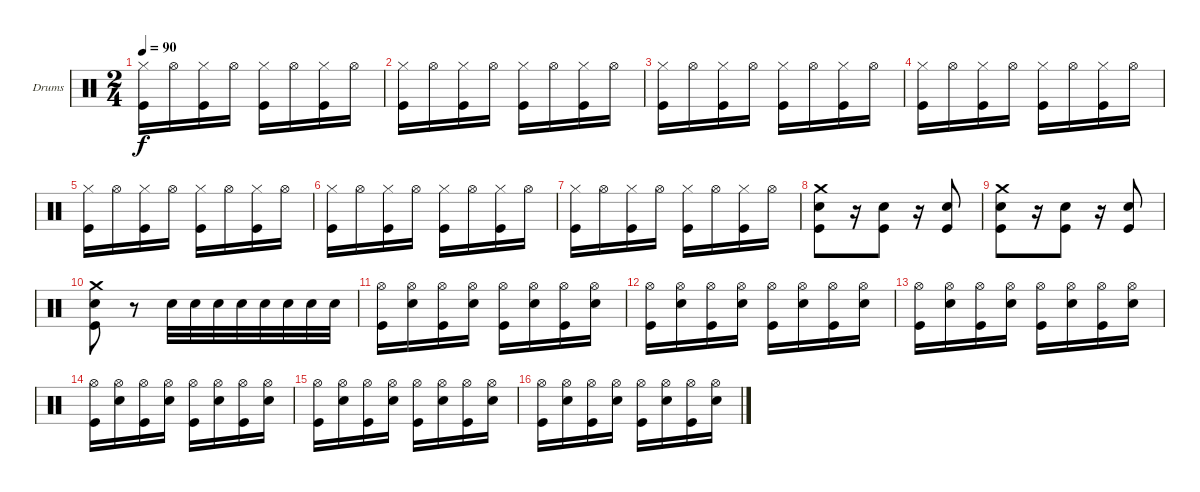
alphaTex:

\bracketExtendMode groupsimilarinstruments
\firstSystemTrackNameOrientation horizontal
\otherSystemsTrackNameOrientation horizontal
\track ("Барабаны" "Drums") {instrument percussion}
\staff {score}
\articulation defaults
\ts (2 4)
\tempo 90
\clef neutral
\ks c
("Kick (hit)" "Hi-Hat (closed)").16{dy f} "Hi-Hat (open)".16 ("Kick (hit)" "Hi-Hat (closed)").16 "Hi-Hat (open)".16 ("Kick (hit)" "Hi-Hat (closed)").16 "Hi-Hat (open)".16 ("Kick (hit)" "Hi-Hat (closed)").16 "Hi-Hat (open)".16 |
("Kick (hit)" "Hi-Hat (closed)").16 "Hi-Hat (open)".16 ("Kick (hit)" "Hi-Hat (closed)").16 "Hi-Hat (open)".16 ("Kick (hit)" "Hi-Hat (closed)").16 "Hi-Hat (open)".16 ("Kick (hit)" "Hi-Hat (closed)").16 "Hi-Hat (open)".16 |
("Kick (hit)" "Hi-Hat (closed)").16 "Hi-Hat (open)".16 ("Kick (hit)" "Hi-Hat (closed)").16 "Hi-Hat (open)".16 ("Kick (hit)" "Hi-Hat (closed)").16 "Hi-Hat (open)".16 ("Kick (hit)" "Hi-Hat (closed)").16 "Hi-Hat (open)".16 |
("Kick (hit)" "Hi-Hat (closed)").16 "Hi-Hat (open)".16 ("Kick (hit)" "Hi-Hat (closed)").16 "Hi-Hat (open)".16 ("Kick (hit)" "Hi-Hat (closed)").16 "Hi-Hat (open)".16 ("Kick (hit)" "Hi-Hat (closed)").16 "Hi-Hat (open)".16 |
("Kick (hit)" "Hi-Hat (closed)").16 "Hi-Hat (open)".16 ("Kick (hit)" "Hi-Hat (closed)").16 "Hi-Hat (open)".16 ("Kick (hit)" "Hi-Hat (closed)").16 "Hi-Hat (open)".16 ("Kick (hit)" "Hi-Hat (closed)").16 "Hi-Hat (open)".16 |
("Kick (hit)" "Hi-Hat (closed)").16 "Hi-Hat (open)".16 ("Kick (hit)" "Hi-Hat (closed)").16 "Hi-Hat (open)".16 ("Kick (hit)" "Hi-Hat (closed)").16 "Hi-Hat (open)".16 ("Kick (hit)" "Hi-Hat (closed)").16 "Hi-Hat (open)".16 |
("Kick (hit)" "Hi-Hat (closed)").16 "Hi-Hat (open)".16 ("Kick (hit)" "Hi-Hat (closed)").16 "Hi-Hat (open)".16 ("Kick (hit)" "Hi-Hat (closed)").16 "Hi-Hat (open)".16 ("Kick (hit)" "Hi-Hat (closed)").16 "Hi-Hat (open)".16 |
("Snare (hit) 2" "Kick (hit)" "Crash medium (hit)").8 r.16 ("Snare (hit) 2" "Kick (hit)").8 r.16 ("Snare (hit) 2" "Kick (hit)").8 |
("Snare (hit) 2" "Kick (hit)" "Crash medium (hit)").8 r.16 ("Snare (hit) 2" "Kick (hit)").8 r.16 ("Snare (hit) 2" "Kick (hit)").8 |
("Kick (hit)" "Snare (hit) 2" "Crash medium (hit)").8 r.8 "Snare (hit) 2".32 "Snare (hit) 2".32 "Snare (hit) 2".32 "Snare (hit) 2".32 "Snare (hit) 2".32 "Snare (hit) 2".32 "Snare (hit) 2".32 "Snare (hit) 2".32 |
("Kick (hit)" "Hi-Hat (open)").16 ("Snare (hit) 2" "Hi-Hat (open)").16 ("Kick (hit)" "Hi-Hat (open)").16 ("Snare (hit) 2" "Hi-Hat (open)").16 ("Kick (hit)" "Hi-Hat (open)").16 ("Snare (hit) 2" "Hi-Hat (open)").16 ("Kick (hit)" "Hi-Hat (open)").16 ("Snare (hit) 2" "Hi-Hat (open)").16 |
("Kick (hit)" "Hi-Hat (open)").16 ("Snare (hit) 2" "Hi-Hat (open)").16 ("Kick (hit)" "Hi-Hat (open)").16 ("Snare (hit) 2" "Hi-Hat (open)").16 ("Kick (hit)" "Hi-Hat (open)").16 ("Snare (hit) 2" "Hi-Hat (open)").16 ("Kick (hit)" "Hi-Hat (open)").16 ("Snare (hit) 2" "Hi-Hat (open)").16 |
("Kick (hit)" "Hi-Hat (open)").16 ("Snare (hit) 2" "Hi-Hat (open)").16 ("Kick (hit)" "Hi-Hat (open)").16 ("Snare (hit) 2" "Hi-Hat (open)").16 ("Kick (hit)" "Hi-Hat (open)").16 ("Snare (hit) 2" "Hi-Hat (open)").16 ("Kick (hit)" "Hi-Hat (open)").16 ("Snare (hit) 2" "Hi-Hat (open)").16 |
("Kick (hit)" "Hi-Hat (open)").16 ("Snare (hit) 2" "Hi-Hat (open)").16 ("Kick (hit)" "Hi-Hat (open)").16 ("Snare (hit) 2" "Hi-Hat (open)").16 ("Kick (hit)" "Hi-Hat (open)").16 ("Snare (hit) 2" "Hi-Hat (open)").16 ("Kick (hit)" "Hi-Hat (open)").16 ("Snare (hit) 2" "Hi-Hat (open)").16 |
("Kick (hit)" "Hi-Hat (open)").16 ("Snare (hit) 2" "Hi-Hat (open)").16 ("Kick (hit)" "Hi-Hat (open)").16 ("Snare (hit) 2" "Hi-Hat (open)").16 ("Kick (hit)" "Hi-Hat (open)").16 ("Snare (hit) 2" "Hi-Hat (open)").16 ("Kick (hit)" "Hi-Hat (open)").16 ("Snare (hit) 2" "Hi-Hat (open)").16 |
("Kick (hit)" "Hi-Hat (open)").16 ("Snare (hit) 2" "Hi-Hat (open)").16 ("Kick (hit)" "Hi-Hat (open)").16 ("Snare (hit) 2" "Hi-Hat (open)").16 ("Kick (hit)" "Hi-Hat (open)").16 ("Snare (hit) 2" "Hi-Hat (open)").16 ("Kick (hit)" "Hi-Hat (open)").16 ("Snare (hit) 2" "Hi-Hat (open)").16
